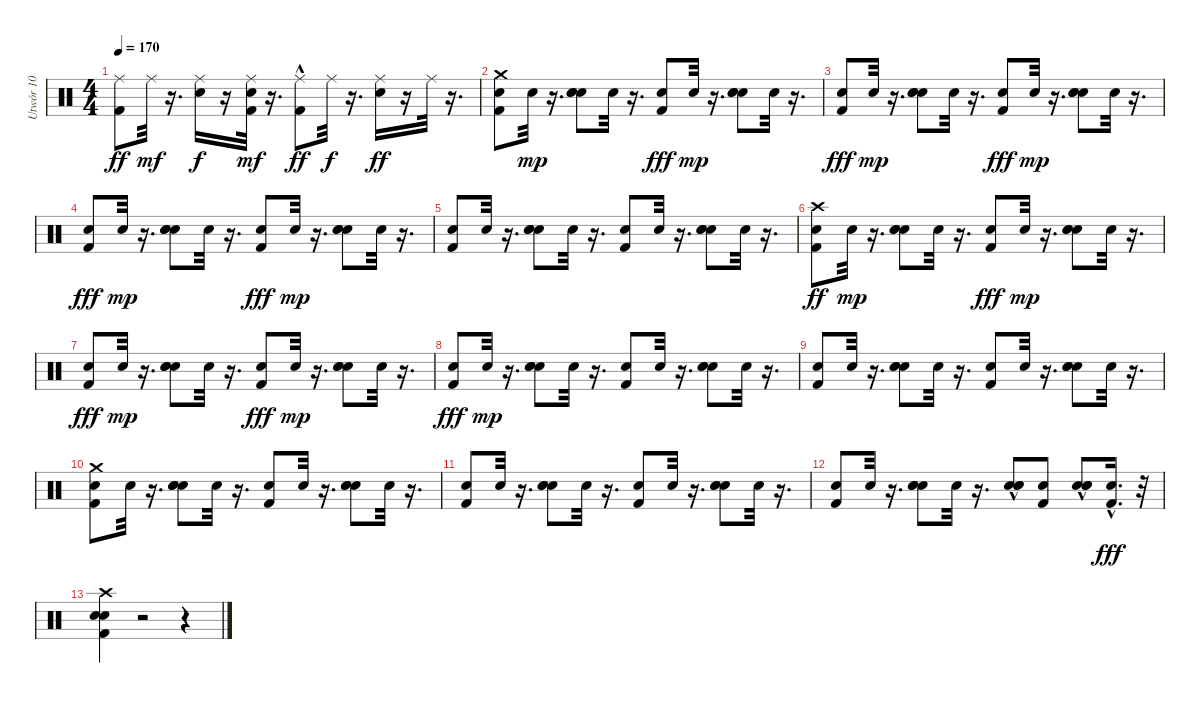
\track ("Utwór 10" "Utwór 10") {instrument percussion}
\staff {score}
\articulation defaults
\ts (4 4)
\tempo 170
\clef neutral
\ks c
("Kick (hit) 2" "Ride (middle)").8{dy ff} "Ride (middle)".32{dy mf} r.16{d} ("Snare (hit) 2" "Ride (middle)").16{dy f} r.16 ("Ride (middle)" "Kick (hit) 2" "Snare (hit) 2").32{dy mf} r.16{d} ("Kick (hit) 2"{hac} "Ride (middle)").8{dy ff} "Ride (middle)".32{dy f} r.16{d} ("Ride (middle)" "Snare (hit) 2").16{dy ff} r.16 "Ride (middle)".32 r.16{d} |
("Snare (hit) 2" "Kick (hit) 2" "Crash medium (hit)").8 "Snare (hit) 2".32{dy mp} r.16{d} ("Snare (hit) 2" "Snare (hit) 2" "Snare (hit) 2").8 "Snare (hit) 2".32 r.16{d} ("Snare (hit) 2" "Kick (hit) 2").8{dy fff} "Snare (hit) 2".32{dy mp} r.16{d} ("Snare (hit) 2" "Snare (hit) 2" "Snare (hit) 2").8 "Snare (hit) 2".32 r.16{d} |
("Snare (hit) 2" "Kick (hit) 2").8{dy fff} "Snare (hit) 2".32{dy mp} r.16{d} ("Snare (hit) 2" "Snare (hit) 2" "Snare (hit) 2").8 "Snare (hit) 2".32 r.16{d} ("Snare (hit) 2" "Kick (hit) 2").8{dy fff} "Snare (hit) 2".32{dy mp} r.16{d} ("Snare (hit) 2" "Snare (hit) 2" "Snare (hit) 2").8 "Snare (hit) 2".32 r.16{d} |
("Snare (hit) 2" "Kick (hit) 2").8{dy fff} "Snare (hit) 2".32{dy mp} r.16{d} ("Snare (hit) 2" "Snare (hit) 2" "Snare (hit) 2").8 "Snare (hit) 2".32 r.16{d} ("Snare (hit) 2" "Kick (hit) 2").8{dy fff} "Snare (hit) 2".32{dy mp} r.16{d} ("Snare (hit) 2" "Snare (hit) 2" "Snare (hit) 2").8 "Snare (hit) 2".32 r.16{d} |
("Kick (hit) 2" "Snare (hit) 2").8 "Snare (hit) 2".32 r.16{d} ("Snare (hit) 2" "Snare (hit) 2" "Snare (hit) 2").8 "Snare (hit) 2".32 r.16{d} ("Kick (hit) 2" "Snare (hit) 2").8 "Snare (hit) 2".32 r.16{d} ("Snare (hit) 2" "Snare (hit) 2" "Snare (hit) 2").8 "Snare (hit) 2".32 r.16{d} |
("Snare (hit) 2" "Kick (hit) 2" "Crash high (hit)").8{dy ff} "Snare (hit) 2".32{dy mp} r.16{d} ("Snare (hit) 2" "Snare (hit) 2" "Snare (hit) 2").8 "Snare (hit) 2".32 r.16{d} ("Snare (hit) 2" "Kick (hit) 2").8{dy fff} "Snare (hit) 2".32{dy mp} r.16{d} ("Snare (hit) 2" "Snare (hit) 2" "Snare (hit) 2").8 "Snare (hit) 2".32 r.16{d} |
("Snare (hit) 2" "Kick (hit) 2").8{dy fff} "Snare (hit) 2".32{dy mp} r.16{d} ("Snare (hit) 2" "Snare (hit) 2" "Snare (hit) 2").8 "Snare (hit) 2".32 r.16{d} ("Snare (hit) 2" "Kick (hit) 2").8{dy fff} "Snare (hit) 2".32{dy mp} r.16{d} ("Snare (hit) 2" "Snare (hit) 2" "Snare (hit) 2").8 "Snare (hit) 2".32 r.16{d} |
("Snare (hit) 2" "Kick (hit) 2").8{dy fff} "Snare (hit) 2".32{dy mp} r.16{d} ("Snare (hit) 2" "Snare (hit) 2" "Snare (hit) 2").8 "Snare (hit) 2".32 r.16{d} ("Kick (hit) 2" "Snare (hit) 2").8 "Snare (hit) 2".32 r.16{d} ("Snare (hit) 2" "Snare (hit) 2" "Snare (hit) 2").8 "Snare (hit) 2".32 r.16{d} |
("Kick (hit) 2" "Snare (hit) 2").8 "Snare (hit) 2".32 r.16{d} ("Snare (hit) 2" "Snare (hit) 2" "Snare (hit) 2").8 "Snare (hit) 2".32 r.16{d} ("Kick (hit) 2" "Snare (hit) 2").8 "Snare (hit) 2".32 r.16{d} ("Snare (hit) 2" "Snare (hit) 2" "Snare (hit) 2").8 "Snare (hit) 2".32 r.16{d} |
("Kick (hit) 2" "Crash medium (hit)" "Snare (hit) 2").8 "Snare (hit) 2".32 r.16{d} ("Snare (hit) 2" "Snare (hit) 2" "Snare (hit) 2").8 "Snare (hit) 2".32 r.16{d} ("Kick (hit) 2" "Snare (hit) 2").8 "Snare (hit) 2".32 r.16{d} ("Snare (hit) 2" "Snare (hit) 2" "Snare (hit) 2").8 "Snare (hit) 2".32 r.16{d} |
("Kick (hit) 2" "Snare (hit) 2").8 "Snare (hit) 2".32 r.16{d} ("Snare (hit) 2" "Snare (hit) 2" "Snare (hit) 2").8 "Snare (hit) 2".32 r.16{d} ("Kick (hit) 2" "Snare (hit) 2").8 "Snare (hit) 2".32 r.16{d} ("Snare (hit) 2" "Snare (hit) 2" "Snare (hit) 2").8 "Snare (hit) 2".32 r.16{d} |
("Kick (hit) 2" "Snare (hit) 2").8 "Snare (hit) 2".32 r.16{d} ("Snare (hit) 2" "Snare (hit) 2" "Snare (hit) 2").8 "Snare (hit) 2".32 r.16{d} ("Snare (hit) 2" "Snare (hit) 2" "Snare (hit) 2"{hac}).8 ("Kick (hit) 2" "Snare (hit) 2").8 ("Snare (hit) 2" "Snare (hit) 2" "Snare (hit) 2"{hac}).8 ("Snare (hit) 2" "Kick (hit) 2"{hac}).16{d dy fff} r.32 |
("Crash high (hit)" "Kick (hit) 2" "Snare (hit) 2" "Snare (hit) 2").4 r.2 r.4
